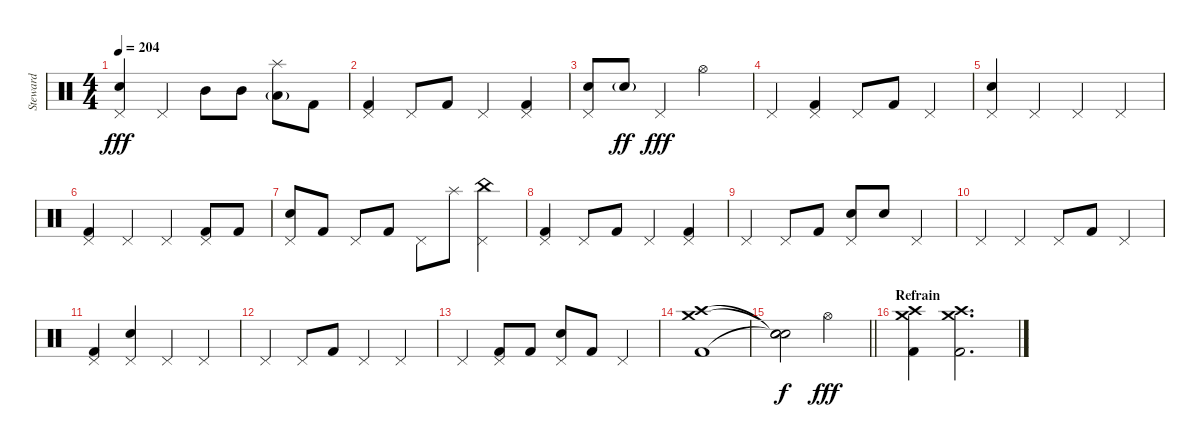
\track ("Steward" "Steward") {instrument percussion}
\staff {score}
\articulation defaults
\ts (4 4)
\tempo 204
\clef neutral
\ks c
("Pedal Hi-Hat (hit)" "Electric Snare (hit)").4{dy fff} "Pedal Hi-Hat (hit)".4 "Mid Tom (hit)".8 "Mid Tom (hit)".8 ("Splash (hit)" "Low Tom (hit)"{g}).8 "Kick (hit) 2".8 |
("Pedal Hi-Hat (hit)" "Kick (hit) 2").4 "Pedal Hi-Hat (hit)".8 "Kick (hit) 2".8 "Pedal Hi-Hat (hit)".4 ("Pedal Hi-Hat (hit)" "Kick (hit) 2").4 |
("Pedal Hi-Hat (hit)" "Electric Snare (hit)").8 "Electric Snare (hit)"{g}.8{dy ff} "Pedal Hi-Hat (hit)".4{dy fff} "Hi-Hat (open)".2 |
"Pedal Hi-Hat (hit)".4 ("Pedal Hi-Hat (hit)" "Kick (hit) 2").4 "Pedal Hi-Hat (hit)".8 "Kick (hit) 2".8 "Pedal Hi-Hat (hit)".4 |
("Pedal Hi-Hat (hit)" "Electric Snare (hit)").4 "Pedal Hi-Hat (hit)".4 "Pedal Hi-Hat (hit)".4 "Pedal Hi-Hat (hit)".4 |
("Pedal Hi-Hat (hit)" "Kick (hit) 2").4 "Pedal Hi-Hat (hit)".4 "Pedal Hi-Hat (hit)".4 ("Pedal Hi-Hat (hit)" "Kick (hit) 2").8 "Kick (hit) 2".8 |
("Pedal Hi-Hat (hit)" "Electric Snare (hit)").8 "Kick (hit) 2".8 "Pedal Hi-Hat (hit)".8 "Kick (hit) 2".8 "Pedal Hi-Hat (hit)".8 "Splash (hit)".8 ("China (hit)" "Pedal Hi-Hat (hit)").4 |
("Pedal Hi-Hat (hit)" "Kick (hit) 2").4 "Pedal Hi-Hat (hit)".8 "Kick (hit) 2".8 "Pedal Hi-Hat (hit)".4 ("Pedal Hi-Hat (hit)" "Kick (hit) 2").4 |
"Pedal Hi-Hat (hit)".4 "Pedal Hi-Hat (hit)".8 "Kick (hit) 2".8 ("Pedal Hi-Hat (hit)" "Electric Snare (hit)").8 "Electric Snare (hit)".8 "Pedal Hi-Hat (hit)".4 |
"Pedal Hi-Hat (hit)".4 "Pedal Hi-Hat (hit)".4 "Pedal Hi-Hat (hit)".8 "Kick (hit) 2".8 "Pedal Hi-Hat (hit)".4 |
("Pedal Hi-Hat (hit)" "Kick (hit) 2").4 ("Pedal Hi-Hat (hit)" "Electric Snare (hit)").4 "Pedal Hi-Hat (hit)".4 "Pedal Hi-Hat (hit)".4 |
"Pedal Hi-Hat (hit)".4 "Pedal Hi-Hat (hit)".8 "Kick (hit) 2".8 "Pedal Hi-Hat (hit)".4 "Pedal Hi-Hat (hit)".4 |
"Pedal Hi-Hat (hit)".4 ("Pedal Hi-Hat (hit)" "Kick (hit) 2").8 "Kick (hit) 2".8 ("Pedal Hi-Hat (hit)" "Electric Snare (hit)").8 "Kick (hit) 2".8 "Pedal Hi-Hat (hit)".4 |
("Crash medium (hit)" "Crash high (hit)" "Kick (hit) 2").1 |
\barLineRight lightlight
("Snare (hit)"{t} "Snare (hit)"{t} "Snare (hit)"{t}).2{dy f} "Hi-Hat (open)".2{dy fff} |
\section ("" "Refrain")
("Crash medium (hit)" "Crash high (hit)" "Kick (hit) 2").4 ("Crash medium (hit)" "Crash high (hit)" "Kick (hit) 2").2{d}
